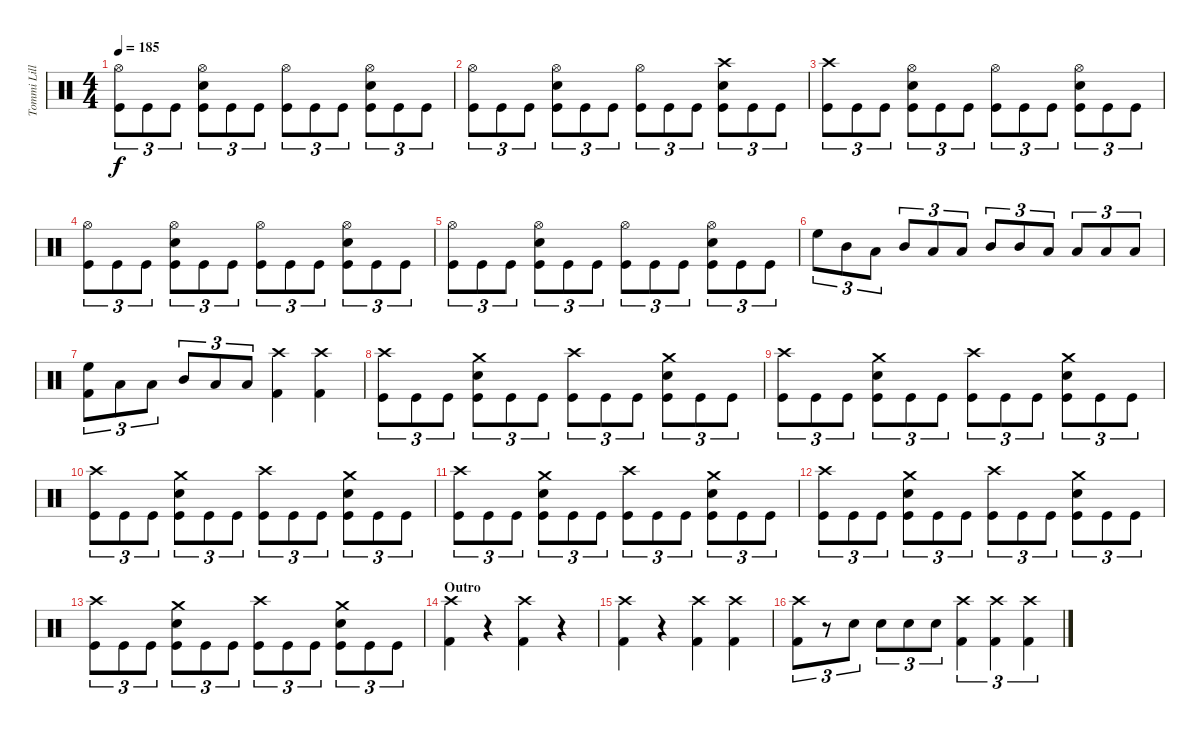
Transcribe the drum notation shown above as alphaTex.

\track ("Tommi Lillman" "Tommi Lill") {instrument percussion}
\staff {score}
\articulation defaults
\ts (4 4)
\tempo 185
\clef neutral
\ks c
("Hi-Hat (open)" "Kick (hit)").8{tu (3 2) dy f} "Kick (hit)".8{tu (3 2)} "Kick (hit)".8{tu (3 2)} ("Hi-Hat (open)" "Snare (hit) 2" "Kick (hit)").8{tu (3 2)} "Kick (hit)".8{tu (3 2)} "Kick (hit)".8{tu (3 2)} ("Hi-Hat (open)" "Kick (hit)").8{tu (3 2)} "Kick (hit)".8{tu (3 2)} "Kick (hit)".8{tu (3 2)} ("Hi-Hat (open)" "Snare (hit) 2" "Kick (hit)").8{tu (3 2)} "Kick (hit)".8{tu (3 2)} "Kick (hit)".8{tu (3 2)} |
("Hi-Hat (open)" "Kick (hit)").8{tu (3 2)} "Kick (hit)".8{tu (3 2)} "Kick (hit)".8{tu (3 2)} ("Hi-Hat (open)" "Snare (hit) 2" "Kick (hit)").8{tu (3 2)} "Kick (hit)".8{tu (3 2)} "Kick (hit)".8{tu (3 2)} ("Hi-Hat (open)" "Kick (hit)").8{tu (3 2)} "Kick (hit)".8{tu (3 2)} "Kick (hit)".8{tu (3 2)} ("Crash high (hit)" "Snare (hit) 2" "Kick (hit)").8{tu (3 2)} "Kick (hit)".8{tu (3 2)} "Kick (hit)".8{tu (3 2)} |
("Crash high (hit)" "Kick (hit)").8{tu (3 2)} "Kick (hit)".8{tu (3 2)} "Kick (hit)".8{tu (3 2)} ("Hi-Hat (open)" "Snare (hit) 2" "Kick (hit)").8{tu (3 2)} "Kick (hit)".8{tu (3 2)} "Kick (hit)".8{tu (3 2)} ("Hi-Hat (open)" "Kick (hit)").8{tu (3 2)} "Kick (hit)".8{tu (3 2)} "Kick (hit)".8{tu (3 2)} ("Hi-Hat (open)" "Snare (hit) 2" "Kick (hit)").8{tu (3 2)} "Kick (hit)".8{tu (3 2)} "Kick (hit)".8{tu (3 2)} |
("Hi-Hat (open)" "Kick (hit)").8{tu (3 2)} "Kick (hit)".8{tu (3 2)} "Kick (hit)".8{tu (3 2)} ("Hi-Hat (open)" "Snare (hit) 2" "Kick (hit)").8{tu (3 2)} "Kick (hit)".8{tu (3 2)} "Kick (hit)".8{tu (3 2)} ("Hi-Hat (open)" "Kick (hit)").8{tu (3 2)} "Kick (hit)".8{tu (3 2)} "Kick (hit)".8{tu (3 2)} ("Hi-Hat (open)" "Snare (hit) 2" "Kick (hit)").8{tu (3 2)} "Kick (hit)".8{tu (3 2)} "Kick (hit)".8{tu (3 2)} |
("Hi-Hat (open)" "Kick (hit)").8{tu (3 2)} "Kick (hit)".8{tu (3 2)} "Kick (hit)".8{tu (3 2)} ("Hi-Hat (open)" "Snare (hit) 2" "Kick (hit)").8{tu (3 2)} "Kick (hit)".8{tu (3 2)} "Kick (hit)".8{tu (3 2)} ("Hi-Hat (open)" "Kick (hit)").8{tu (3 2)} "Kick (hit)".8{tu (3 2)} "Kick (hit)".8{tu (3 2)} ("Hi-Hat (open)" "Snare (hit) 2" "Kick (hit)").8{tu (3 2)} "Kick (hit)".8{tu (3 2)} "Kick (hit)".8{tu (3 2)} |
"High Floor Tom (hit)".8{tu (3 2)} "Mid Tom (hit)".8{tu (3 2)} "Low Tom (hit)".8{tu (3 2)} "Mid Tom (hit)".8{tu (3 2)} "Low Tom (hit)".8{tu (3 2)} "Low Floor Tom (hit)".8{tu (3 2)} "Mid Tom (hit)".8{tu (3 2)} "Mid Tom (hit)".8{tu (3 2)} "Low Tom (hit)".8{tu (3 2)} "Low Tom (hit)".8{tu (3 2)} "Low Floor Tom (hit)".8{tu (3 2)} "Low Floor Tom (hit)".8{tu (3 2)} |
("High Floor Tom (hit)" "Kick (hit) 2").8{tu (3 2)} "Low Tom (hit)".8{tu (3 2)} "Low Floor Tom (hit)".8{tu (3 2)} "Mid Tom (hit)".8{tu (3 2)} "Low Tom (hit)".8{tu (3 2)} "Low Tom (hit)".8{tu (3 2)} ("Crash high (hit)" "Kick (hit) 2").4 ("Crash high (hit)" "Kick (hit) 2").4 |
("Crash high (hit)" "Kick (hit)").8{tu (3 2)} "Kick (hit)".8{tu (3 2)} "Kick (hit)".8{tu (3 2)} ("Crash medium (hit)" "Snare (hit) 2" "Kick (hit)").8{tu (3 2)} "Kick (hit)".8{tu (3 2)} "Kick (hit)".8{tu (3 2)} ("Crash high (hit)" "Kick (hit)").8{tu (3 2)} "Kick (hit)".8{tu (3 2)} "Kick (hit)".8{tu (3 2)} ("Crash medium (hit)" "Snare (hit) 2" "Kick (hit)").8{tu (3 2)} "Kick (hit)".8{tu (3 2)} "Kick (hit)".8{tu (3 2)} |
("Crash high (hit)" "Kick (hit)").8{tu (3 2)} "Kick (hit)".8{tu (3 2)} "Kick (hit)".8{tu (3 2)} ("Crash medium (hit)" "Snare (hit) 2" "Kick (hit)").8{tu (3 2)} "Kick (hit)".8{tu (3 2)} "Kick (hit)".8{tu (3 2)} ("Crash high (hit)" "Kick (hit)").8{tu (3 2)} "Kick (hit)".8{tu (3 2)} "Kick (hit)".8{tu (3 2)} ("Crash medium (hit)" "Snare (hit) 2" "Kick (hit)").8{tu (3 2)} "Kick (hit)".8{tu (3 2)} "Kick (hit)".8{tu (3 2)} |
("Crash high (hit)" "Kick (hit)").8{tu (3 2)} "Kick (hit)".8{tu (3 2)} "Kick (hit)".8{tu (3 2)} ("Crash medium (hit)" "Snare (hit) 2" "Kick (hit)").8{tu (3 2)} "Kick (hit)".8{tu (3 2)} "Kick (hit)".8{tu (3 2)} ("Crash high (hit)" "Kick (hit)").8{tu (3 2)} "Kick (hit)".8{tu (3 2)} "Kick (hit)".8{tu (3 2)} ("Crash medium (hit)" "Snare (hit) 2" "Kick (hit)").8{tu (3 2)} "Kick (hit)".8{tu (3 2)} "Kick (hit)".8{tu (3 2)} |
("Crash high (hit)" "Kick (hit)").8{tu (3 2)} "Kick (hit)".8{tu (3 2)} "Kick (hit)".8{tu (3 2)} ("Crash medium (hit)" "Snare (hit) 2" "Kick (hit)").8{tu (3 2)} "Kick (hit)".8{tu (3 2)} "Kick (hit)".8{tu (3 2)} ("Crash high (hit)" "Kick (hit)").8{tu (3 2)} "Kick (hit)".8{tu (3 2)} "Kick (hit)".8{tu (3 2)} ("Crash medium (hit)" "Snare (hit) 2" "Kick (hit)").8{tu (3 2)} "Kick (hit)".8{tu (3 2)} "Kick (hit)".8{tu (3 2)} |
("Crash high (hit)" "Kick (hit)").8{tu (3 2)} "Kick (hit)".8{tu (3 2)} "Kick (hit)".8{tu (3 2)} ("Crash medium (hit)" "Snare (hit) 2" "Kick (hit)").8{tu (3 2)} "Kick (hit)".8{tu (3 2)} "Kick (hit)".8{tu (3 2)} ("Crash high (hit)" "Kick (hit)").8{tu (3 2)} "Kick (hit)".8{tu (3 2)} "Kick (hit)".8{tu (3 2)} ("Crash medium (hit)" "Snare (hit) 2" "Kick (hit)").8{tu (3 2)} "Kick (hit)".8{tu (3 2)} "Kick (hit)".8{tu (3 2)} |
("Crash high (hit)" "Kick (hit)").8{tu (3 2)} "Kick (hit)".8{tu (3 2)} "Kick (hit)".8{tu (3 2)} ("Crash medium (hit)" "Snare (hit) 2" "Kick (hit)").8{tu (3 2)} "Kick (hit)".8{tu (3 2)} "Kick (hit)".8{tu (3 2)} ("Crash high (hit)" "Kick (hit)").8{tu (3 2)} "Kick (hit)".8{tu (3 2)} "Kick (hit)".8{tu (3 2)} ("Crash medium (hit)" "Snare (hit) 2" "Kick (hit)").8{tu (3 2)} "Kick (hit)".8{tu (3 2)} "Kick (hit)".8{tu (3 2)} |
\section ("" "Outro")
("Crash high (hit)" "Kick (hit) 2").4 r.4 ("Crash high (hit)" "Kick (hit) 2").4 r.4 |
("Crash high (hit)" "Kick (hit) 2").4 r.4 ("Crash high (hit)" "Kick (hit) 2").4 ("Crash high (hit)" "Kick (hit) 2").4 |
("Crash high (hit)" "Kick (hit) 2").8{tu (3 2)} r.8{tu (3 2)} "Snare (hit) 2".8{tu (3 2)} "Snare (hit) 2".8{tu (3 2)} "Snare (hit) 2".8{tu (3 2)} "Snare (hit) 2".8{tu (3 2)} ("Crash high (hit)" "Kick (hit) 2").4{tu (3 2)} ("Crash high (hit)" "Kick (hit) 2").4{tu (3 2)} ("Crash high (hit)" "Kick (hit) 2").4{tu (3 2)}
